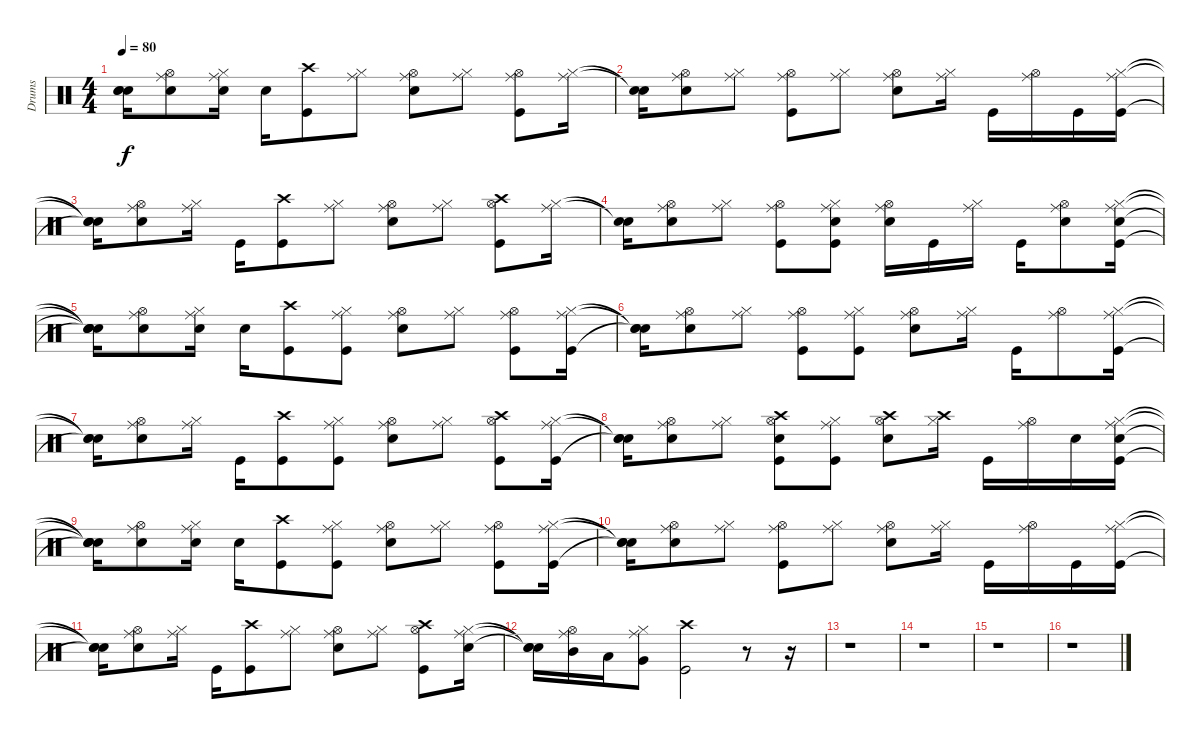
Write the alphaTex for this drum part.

\track ("Drums" "Drums") {instrument percussion}
\staff {score}
\articulation defaults
\ts (4 4)
\tempo 80
\clef neutral
\ks c
("Snare (hit)"{t} "Snare (hit)"{t} "Snare (hit)"{t}).16{dy f} ("Electric Snare (hit)" "Hi-Hat (open)" "Ride (middle)").8 ("Electric Snare (hit)" "Hi-Hat (closed)" "Ride (middle)").16 "Electric Snare (hit)".16 ("Kick (hit)" "Crash high (hit)").8 ("Hi-Hat (closed)" "Ride (middle)").8 ("Electric Snare (hit)" "Hi-Hat (open)" "Ride (middle)").8 ("Hi-Hat (closed)" "Ride (middle)").8 ("Kick (hit)" "Hi-Hat (open)" "Ride (middle)").8 ("Hi-Hat (closed)" "Ride (middle)").16 |
("Snare (hit)"{t} "Snare (hit)"{t}).16 ("Electric Snare (hit)" "Hi-Hat (open)" "Ride (middle)").8 ("Hi-Hat (closed)" "Ride (middle)").8 ("Kick (hit)" "Hi-Hat (open)" "Ride (middle)").8 ("Hi-Hat (closed)" "Ride (middle)").8 ("Electric Snare (hit)" "Hi-Hat (open)" "Ride (middle)").8 ("Hi-Hat (closed)" "Ride (middle)").16 "Kick (hit)".16 ("Hi-Hat (open)" "Ride (middle)").16 "Kick (hit)".16 ("Kick (hit)" "Hi-Hat (closed)" "Ride (middle)").16 |
("Snare (hit)"{t} "Snare (hit)"{t} "Snare (hit)"{t}).16 ("Electric Snare (hit)" "Hi-Hat (open)" "Ride (middle)").8 ("Hi-Hat (closed)" "Ride (middle)").16 "Kick (hit)".16 ("Kick (hit)" "Crash high (hit)").8 ("Hi-Hat (closed)" "Ride (middle)").8 ("Electric Snare (hit)" "Hi-Hat (open)" "Ride (middle)").8 ("Hi-Hat (closed)" "Ride (middle)").8 ("Kick (hit)" "Hi-Hat (open)" "Crash high (hit)").8 ("Hi-Hat (closed)" "Ride (middle)").16 |
("Snare (hit)"{t} "Snare (hit)"{t}).16 ("Electric Snare (hit)" "Hi-Hat (open)" "Ride (middle)").8 ("Hi-Hat (closed)" "Ride (middle)").8 ("Kick (hit)" "Hi-Hat (open)" "Ride (middle)").8 ("Kick (hit)" "Electric Snare (hit)" "Hi-Hat (closed)" "Ride (middle)").8 ("Electric Snare (hit)" "Hi-Hat (open)" "Ride (middle)").16 "Kick (hit)".16 ("Hi-Hat (closed)" "Ride (middle)").16 "Kick (hit)".16 ("Electric Snare (hit)" "Hi-Hat (open)" "Ride (middle)").8 ("Kick (hit)" "Electric Snare (hit)" "Hi-Hat (closed)" "Ride (middle)").16 |
("Snare (hit)"{t} "Snare (hit)"{t} "Snare (hit)"{t} "Snare (hit)"{t}).16 ("Electric Snare (hit)" "Hi-Hat (open)" "Ride (middle)").8 ("Electric Snare (hit)" "Hi-Hat (closed)" "Ride (middle)").16 "Electric Snare (hit)".16 ("Kick (hit)" "Crash high (hit)").8 ("Kick (hit)" "Hi-Hat (closed)" "Ride (middle)").8 ("Electric Snare (hit)" "Hi-Hat (open)" "Ride (middle)").8 ("Hi-Hat (closed)" "Ride (middle)").8 ("Kick (hit)" "Hi-Hat (open)" "Ride (middle)").8 ("Kick (hit)" "Hi-Hat (closed)" "Ride (middle)").16 |
("Snare (hit)"{t} "Snare (hit)"{t} "Snare (hit)"{t}).16 ("Electric Snare (hit)" "Hi-Hat (open)" "Ride (middle)").8 ("Hi-Hat (closed)" "Ride (middle)").8 ("Kick (hit)" "Hi-Hat (open)" "Ride (middle)").8 ("Kick (hit)" "Hi-Hat (closed)" "Ride (middle)").8 ("Electric Snare (hit)" "Hi-Hat (open)" "Ride (middle)").8 ("Hi-Hat (closed)" "Ride (middle)").16 "Kick (hit)".16 ("Hi-Hat (open)" "Ride (middle)").8 ("Kick (hit)" "Hi-Hat (closed)" "Ride (middle)").16 |
("Snare (hit)"{t} "Snare (hit)"{t} "Snare (hit)"{t}).16 ("Electric Snare (hit)" "Hi-Hat (open)" "Ride (middle)").8 ("Hi-Hat (closed)" "Ride (middle)").16 "Kick (hit)".16 ("Kick (hit)" "Crash high (hit)").8 ("Kick (hit)" "Hi-Hat (closed)" "Ride (middle)").8 ("Electric Snare (hit)" "Hi-Hat (open)" "Ride (middle)").8 ("Hi-Hat (closed)" "Ride (middle)").8 ("Kick (hit)" "Hi-Hat (open)" "Crash high (hit)").8 ("Kick (hit)" "Hi-Hat (closed)" "Ride (middle)").16 |
("Snare (hit)"{t} "Snare (hit)"{t} "Snare (hit)"{t}).16 ("Electric Snare (hit)" "Hi-Hat (open)" "Ride (middle)").8 ("Hi-Hat (closed)" "Ride (middle)").8 ("Kick (hit)" "Electric Snare (hit)" "Hi-Hat (open)" "Crash high (hit)").8 ("Kick (hit)" "Hi-Hat (closed)" "Ride (middle)").8 ("Electric Snare (hit)" "Hi-Hat (open)" "Crash high (hit)").8 ("Hi-Hat (closed)" "Crash high (hit)").16 "Kick (hit)".16 ("Hi-Hat (open)" "Ride (middle)").16 "Electric Snare (hit)".16 ("Kick (hit)" "Electric Snare (hit)" "Hi-Hat (closed)" "Ride (middle)").16 |
("Snare (hit)"{t} "Snare (hit)"{t} "Snare (hit)"{t} "Snare (hit)"{t}).16 ("Electric Snare (hit)" "Hi-Hat (open)" "Ride (middle)").8 ("Electric Snare (hit)" "Hi-Hat (closed)" "Ride (middle)").16 "Electric Snare (hit)".16 ("Kick (hit)" "Crash high (hit)").8 ("Kick (hit)" "Hi-Hat (closed)" "Ride (middle)").8 ("Electric Snare (hit)" "Hi-Hat (open)" "Ride (middle)").8 ("Hi-Hat (closed)" "Ride (middle)").8 ("Kick (hit)" "Hi-Hat (open)" "Ride (middle)").8 ("Kick (hit)" "Hi-Hat (closed)" "Ride (middle)").16 |
("Snare (hit)"{t} "Snare (hit)"{t} "Snare (hit)"{t}).16 ("Electric Snare (hit)" "Hi-Hat (open)" "Ride (middle)").8 ("Hi-Hat (closed)" "Ride (middle)").8 ("Kick (hit)" "Hi-Hat (open)" "Ride (middle)").8 ("Hi-Hat (closed)" "Ride (middle)").8 ("Electric Snare (hit)" "Hi-Hat (open)" "Ride (middle)").8 ("Hi-Hat (closed)" "Ride (middle)").16 "Kick (hit)".16 ("Hi-Hat (open)" "Ride (middle)").16 "Kick (hit)".16 ("Kick (hit)" "Hi-Hat (closed)" "Ride (middle)").16 |
("Snare (hit)"{t} "Snare (hit)"{t} "Snare (hit)"{t}).16 ("Electric Snare (hit)" "Hi-Hat (open)" "Ride (middle)").8 ("Hi-Hat (closed)" "Ride (middle)").16 "Kick (hit)".16 ("Kick (hit)" "Crash high (hit)").8 ("Hi-Hat (closed)" "Ride (middle)").8 ("Electric Snare (hit)" "Hi-Hat (open)" "Ride (middle)").8 ("Hi-Hat (closed)" "Ride (middle)").8 ("Kick (hit)" "Hi-Hat (open)" "Crash high (hit)").8 ("Electric Snare (hit)" "Hi-Hat (closed)" "Ride (middle)").16 |
("Snare (hit)"{t} "Snare (hit)"{t} "Snare (hit)"{t}).16 ("Mid Tom (hit)" "Hi-Hat (open)" "Ride (middle)").16 "Low Tom (hit)".16 ("Very Low Tom (hit)" "Hi-Hat (closed)" "Ride (middle)").8 ("Kick (hit)" "Crash high (hit)").2 r.8 r.16 |
r.1 |
r.1 |
r.1 |
r.1
